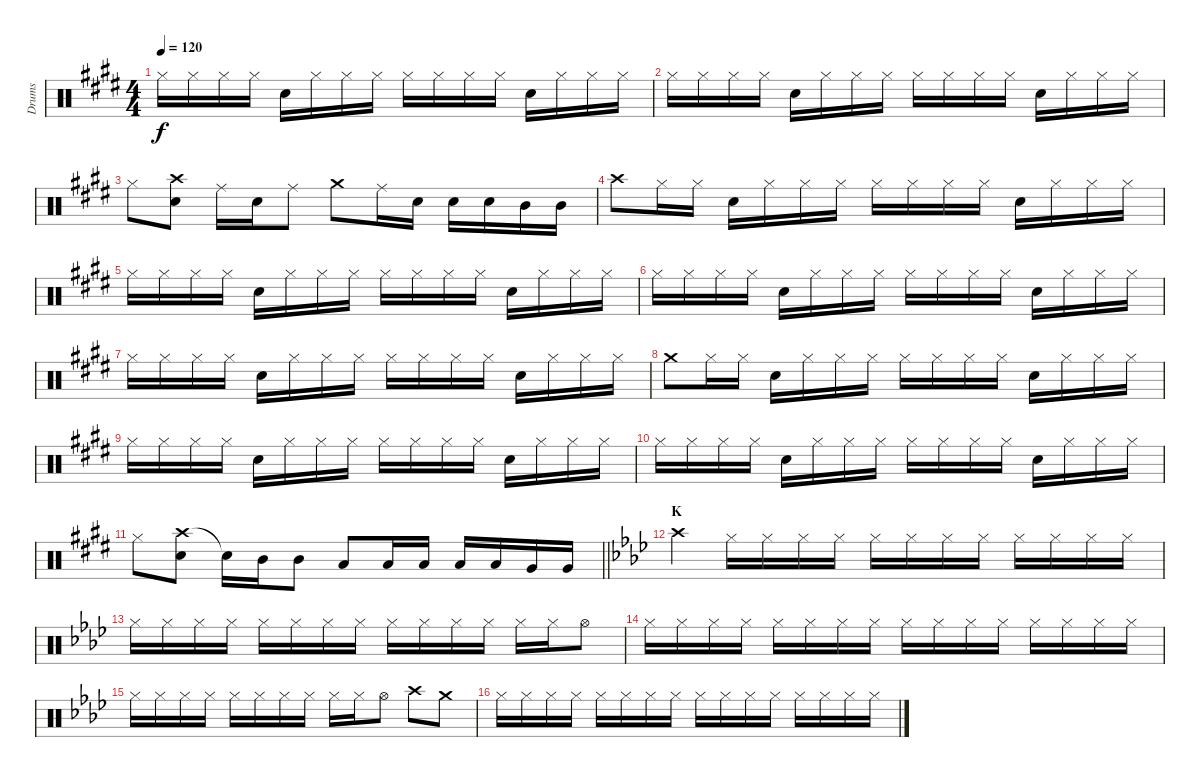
\track ("Drums" "Drums") {instrument percussion}
\staff {score}
\articulation defaults
\ts (4 4)
\tempo 120
\clef neutral
\ks e "Hi-Hat (closed)".16{dy f} "Hi-Hat (closed)".16 "Hi-Hat (closed)".16 "Hi-Hat (closed)".16 "Snare (hit) 2".16 "Hi-Hat (closed)".16 "Hi-Hat (closed)".16 "Hi-Hat (closed)".16 "Hi-Hat (closed)".16 "Hi-Hat (closed)".16 "Hi-Hat (closed)".16 "Hi-Hat (closed)".16 "Snare (hit) 2".16 "Hi-Hat (closed)".16 "Hi-Hat (closed)".16 "Hi-Hat (closed)".16
|
"Hi-Hat (closed)".16 "Hi-Hat (closed)".16 "Hi-Hat (closed)".16 "Hi-Hat (closed)".16 "Snare (hit) 2".16 "Hi-Hat (closed)".16 "Hi-Hat (closed)".16 "Hi-Hat (closed)".16 "Hi-Hat (closed)".16 "Hi-Hat (closed)".16 "Hi-Hat (closed)".16 "Hi-Hat (closed)".16 "Snare (hit) 2".16 "Hi-Hat (closed)".16 "Hi-Hat (closed)".16 "Hi-Hat (closed)".16 |
"Hi-Hat (closed)".8 ("Crash high (hit)" "Snare (hit) 2").8 "Ride (middle)".16 "Snare (hit) 2".16 "Ride (middle)".8 "Crash medium (hit)".8 "Ride (middle)".16 "Snare (hit) 2".16 "Snare (hit) 2".16 "Snare (hit) 2".16 "Mid Tom (hit)".16 "Mid Tom (hit)".16 |
"Crash high (hit)".8 "Hi-Hat (closed)".16 "Hi-Hat (closed)".16 "Snare (hit) 2".16 "Hi-Hat (closed)".16 "Hi-Hat (closed)".16 "Hi-Hat (closed)".16 "Hi-Hat (closed)".16 "Hi-Hat (closed)".16 "Hi-Hat (closed)".16 "Hi-Hat (closed)".16 "Snare (hit) 2".16 "Hi-Hat (closed)".16 "Hi-Hat (closed)".16 "Hi-Hat (closed)".16 |
"Hi-Hat (closed)".16 "Hi-Hat (closed)".16 "Hi-Hat (closed)".16 "Hi-Hat (closed)".16 "Snare (hit) 2".16 "Hi-Hat (closed)".16 "Hi-Hat (closed)".16 "Hi-Hat (closed)".16 "Hi-Hat (closed)".16 "Hi-Hat (closed)".16 "Hi-Hat (closed)".16 "Hi-Hat (closed)".16 "Snare (hit) 2".16 "Hi-Hat (closed)".16 "Hi-Hat (closed)".16 "Hi-Hat (closed)".16 |
"Hi-Hat (closed)".16 "Hi-Hat (closed)".16 "Hi-Hat (closed)".16 "Hi-Hat (closed)".16 "Snare (hit) 2".16 "Hi-Hat (closed)".16 "Hi-Hat (closed)".16 "Hi-Hat (closed)".16 "Hi-Hat (closed)".16 "Hi-Hat (closed)".16 "Hi-Hat (closed)".16 "Hi-Hat (closed)".16 "Snare (hit) 2".16 "Hi-Hat (closed)".16 "Hi-Hat (closed)".16 "Hi-Hat (closed)".16 |
"Hi-Hat (closed)".16 "Hi-Hat (closed)".16 "Hi-Hat (closed)".16 "Hi-Hat (closed)".16 "Snare (hit) 2".16 "Hi-Hat (closed)".16 "Hi-Hat (closed)".16 "Hi-Hat (closed)".16 "Hi-Hat (closed)".16 "Hi-Hat (closed)".16 "Hi-Hat (closed)".16 "Hi-Hat (closed)".16 "Snare (hit) 2".16 "Hi-Hat (closed)".16 "Hi-Hat (closed)".16 "Hi-Hat (closed)".16 |
"Crash medium (hit)".8 "Hi-Hat (closed)".16 "Hi-Hat (closed)".16 "Snare (hit) 2".16 "Hi-Hat (closed)".16 "Hi-Hat (closed)".16 "Hi-Hat (closed)".16 "Hi-Hat (closed)".16 "Hi-Hat (closed)".16 "Hi-Hat (closed)".16 "Hi-Hat (closed)".16 "Snare (hit) 2".16 "Hi-Hat (closed)".16 "Hi-Hat (closed)".16 "Hi-Hat (closed)".16 |
"Hi-Hat (closed)".16 "Hi-Hat (closed)".16 "Hi-Hat (closed)".16 "Hi-Hat (closed)".16 "Snare (hit) 2".16 "Hi-Hat (closed)".16 "Hi-Hat (closed)".16 "Hi-Hat (closed)".16 "Hi-Hat (closed)".16 "Hi-Hat (closed)".16 "Hi-Hat (closed)".16 "Hi-Hat (closed)".16 "Snare (hit) 2".16 "Hi-Hat (closed)".16 "Hi-Hat (closed)".16 "Hi-Hat (closed)".16 |
"Hi-Hat (closed)".16 "Hi-Hat (closed)".16 "Hi-Hat (closed)".16 "Hi-Hat (closed)".16 "Snare (hit) 2".16 "Hi-Hat (closed)".16 "Hi-Hat (closed)".16 "Hi-Hat (closed)".16 "Hi-Hat (closed)".16 "Hi-Hat (closed)".16 "Hi-Hat (closed)".16 "Hi-Hat (closed)".16 "Snare (hit) 2".16 "Hi-Hat (closed)".16 "Hi-Hat (closed)".16 "Hi-Hat (closed)".16 |
\barLineRight lightlight "Hi-Hat (closed)".8
("Crash high (hit)" "Snare (hit) 2").8 "Snare (hit)"{t}.16 "Mid Tom (hit)".16 "Mid Tom (hit)".8 "Low Tom (hit)".8 "Low Tom (hit)".16 "Low Tom (hit)".16 "Low Tom (hit)".16 "Low Tom (hit)".16 "Very Low Tom (hit)".16 "Very Low Tom (hit)".16 |
\section ("" "K")
\ks ab "Crash high (hit)".4 "Hi-Hat (closed)".16 "Hi-Hat (closed)".16 "Hi-Hat (closed)".16 "Hi-Hat (closed)".16 "Hi-Hat (closed)".16 "Hi-Hat (closed)".16 "Hi-Hat (closed)".16 "Hi-Hat (closed)".16 "Hi-Hat (closed)".16 "Hi-Hat (closed)".16 "Hi-Hat (closed)".16 "Hi-Hat (closed)".16
|
"Hi-Hat (closed)".16 "Hi-Hat (closed)".16 "Hi-Hat (closed)".16 "Hi-Hat (closed)".16 "Hi-Hat (closed)".16 "Hi-Hat (closed)".16 "Hi-Hat (closed)".16 "Hi-Hat (closed)".16 "Hi-Hat (closed)".16 "Hi-Hat (closed)".16 "Hi-Hat (closed)".16 "Hi-Hat (closed)".16 "Hi-Hat (closed)".16 "Hi-Hat (closed)".16 "Hi-Hat (open)".8 |
"Hi-Hat (closed)".16 "Hi-Hat (closed)".16 "Hi-Hat (closed)".16 "Hi-Hat (closed)".16 "Hi-Hat (closed)".16 "Hi-Hat (closed)".16 "Hi-Hat (closed)".16 "Hi-Hat (closed)".16 "Hi-Hat (closed)".16 "Hi-Hat (closed)".16 "Hi-Hat (closed)".16 "Hi-Hat (closed)".16 "Hi-Hat (closed)".16 "Hi-Hat (closed)".16 "Hi-Hat (closed)".16 "Hi-Hat (closed)".16 |
"Hi-Hat (closed)".16 "Hi-Hat (closed)".16 "Hi-Hat (closed)".16 "Hi-Hat (closed)".16 "Hi-Hat (closed)".16 "Hi-Hat (closed)".16 "Hi-Hat (closed)".16 "Hi-Hat (closed)".16 "Hi-Hat (closed)".16 "Hi-Hat (closed)".16 "Hi-Hat (open)".8 "Crash high (hit)".8 "Crash medium (hit)".8 |
"Hi-Hat (closed)".16 "Hi-Hat (closed)".16 "Hi-Hat (closed)".16 "Hi-Hat (closed)".16 "Hi-Hat (closed)".16 "Hi-Hat (closed)".16 "Hi-Hat (closed)".16 "Hi-Hat (closed)".16 "Hi-Hat (closed)".16 "Hi-Hat (closed)".16 "Hi-Hat (closed)".16 "Hi-Hat (closed)".16 "Hi-Hat (closed)".16 "Hi-Hat (closed)".16 "Hi-Hat (closed)".16 "Hi-Hat (closed)".16
